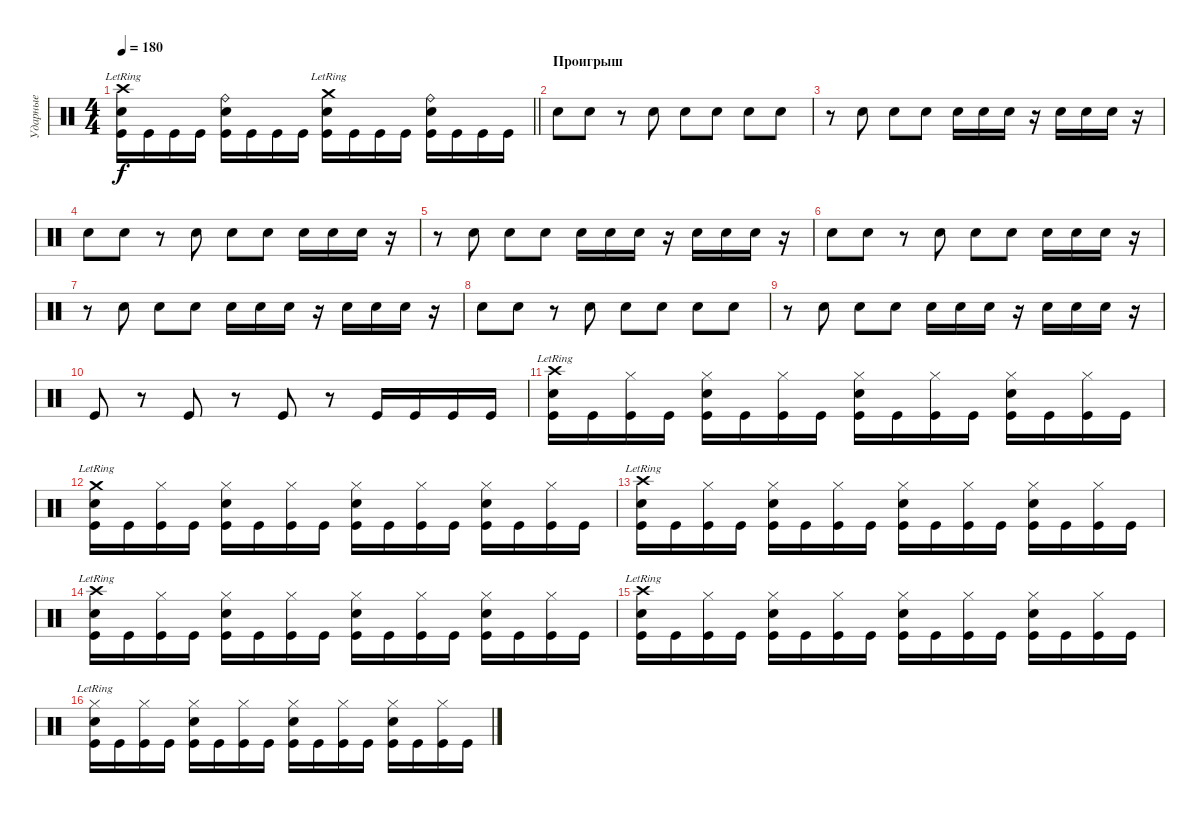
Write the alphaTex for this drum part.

\track ("Ударные" "Ударные") {instrument percussion}
\staff {score}
\articulation defaults
\ts (4 4)
\tempo 180
\clef neutral
\barLineRight lightlight
\ks c
("Crash high (hit)"{lr} "Electric Snare (hit)" "Kick (hit)").16{dy f} "Kick (hit)".16 "Kick (hit)".16 "Kick (hit)".16 ("Ride (bell)" "Electric Snare (hit)" "Kick (hit)").16 "Kick (hit)".16 "Kick (hit)".16 "Kick (hit)".16 ("Crash medium (hit)"{lr} "Electric Snare (hit)" "Kick (hit)").16 "Kick (hit)".16 "Kick (hit)".16 "Kick (hit)".16 ("Ride (bell)" "Electric Snare (hit)" "Kick (hit)").16 "Kick (hit)".16 "Kick (hit)".16 "Kick (hit)".16 |
\section ("" "Проигрыш")
"Electric Snare (hit)".8 "Electric Snare (hit)".8 r.8 "Electric Snare (hit)".8 "Electric Snare (hit)".8 "Electric Snare (hit)".8 "Electric Snare (hit)".8 "Electric Snare (hit)".8 |
r.8 "Electric Snare (hit)".8 "Electric Snare (hit)".8 "Electric Snare (hit)".8 "Electric Snare (hit)".16 "Electric Snare (hit)".16 "Electric Snare (hit)".16 r.16 "Electric Snare (hit)".16 "Electric Snare (hit)".16 "Electric Snare (hit)".16 r.16 |
"Electric Snare (hit)".8 "Electric Snare (hit)".8 r.8 "Electric Snare (hit)".8 "Electric Snare (hit)".8 "Electric Snare (hit)".8 "Electric Snare (hit)".16 "Electric Snare (hit)".16 "Electric Snare (hit)".16 r.16 |
r.8 "Electric Snare (hit)".8 "Electric Snare (hit)".8 "Electric Snare (hit)".8 "Electric Snare (hit)".16 "Electric Snare (hit)".16 "Electric Snare (hit)".16 r.16 "Electric Snare (hit)".16 "Electric Snare (hit)".16 "Electric Snare (hit)".16 r.16 |
"Electric Snare (hit)".8 "Electric Snare (hit)".8 r.8 "Electric Snare (hit)".8 "Electric Snare (hit)".8 "Electric Snare (hit)".8 "Electric Snare (hit)".16 "Electric Snare (hit)".16 "Electric Snare (hit)".16 r.16 |
r.8 "Electric Snare (hit)".8 "Electric Snare (hit)".8 "Electric Snare (hit)".8 "Electric Snare (hit)".16 "Electric Snare (hit)".16 "Electric Snare (hit)".16 r.16 "Electric Snare (hit)".16 "Electric Snare (hit)".16 "Electric Snare (hit)".16 r.16 |
"Electric Snare (hit)".8 "Electric Snare (hit)".8 r.8 "Electric Snare (hit)".8 "Electric Snare (hit)".8 "Electric Snare (hit)".8 "Electric Snare (hit)".8 "Electric Snare (hit)".8 |
r.8 "Electric Snare (hit)".8 "Electric Snare (hit)".8 "Electric Snare (hit)".8 "Electric Snare (hit)".16 "Electric Snare (hit)".16 "Electric Snare (hit)".16 r.16 "Electric Snare (hit)".16 "Electric Snare (hit)".16 "Electric Snare (hit)".16 r.16 |
"Kick (hit)".8 r.8 "Kick (hit)".8 r.8 "Kick (hit)".8 r.8 "Kick (hit)".16 "Kick (hit)".16 "Kick (hit)".16 "Kick (hit)".16 |
("Crash high (hit)"{lr} "Electric Snare (hit)" "Kick (hit)").16 "Kick (hit)".16 ("Hi-Hat (closed)" "Kick (hit)").16 "Kick (hit)".16 ("Hi-Hat (closed)" "Electric Snare (hit)" "Kick (hit)").16 "Kick (hit)".16 ("Hi-Hat (closed)" "Kick (hit)").16 "Kick (hit)".16 ("Hi-Hat (closed)" "Electric Snare (hit)" "Kick (hit)").16 "Kick (hit)".16 ("Hi-Hat (closed)" "Kick (hit)").16 "Kick (hit)".16 ("Hi-Hat (closed)" "Electric Snare (hit)" "Kick (hit)").16 "Kick (hit)".16 ("Hi-Hat (closed)" "Kick (hit)").16 "Kick (hit)".16 |
("Crash medium (hit)"{lr} "Electric Snare (hit)" "Kick (hit)").16 "Kick (hit)".16 ("Hi-Hat (closed)" "Kick (hit)").16 "Kick (hit)".16 ("Hi-Hat (closed)" "Electric Snare (hit)" "Kick (hit)").16 "Kick (hit)".16 ("Hi-Hat (closed)" "Kick (hit)").16 "Kick (hit)".16 ("Hi-Hat (closed)" "Electric Snare (hit)" "Kick (hit)").16 "Kick (hit)".16 ("Hi-Hat (closed)" "Kick (hit)").16 "Kick (hit)".16 ("Hi-Hat (closed)" "Electric Snare (hit)" "Kick (hit)").16 "Kick (hit)".16 ("Hi-Hat (closed)" "Kick (hit)").16 "Kick (hit)".16 |
("Crash high (hit)"{lr} "Electric Snare (hit)" "Kick (hit)").16 "Kick (hit)".16 ("Hi-Hat (closed)" "Kick (hit)").16 "Kick (hit)".16 ("Hi-Hat (closed)" "Electric Snare (hit)" "Kick (hit)").16 "Kick (hit)".16 ("Hi-Hat (closed)" "Kick (hit)").16 "Kick (hit)".16 ("Hi-Hat (closed)" "Electric Snare (hit)" "Kick (hit)").16 "Kick (hit)".16 ("Hi-Hat (closed)" "Kick (hit)").16 "Kick (hit)".16 ("Hi-Hat (closed)" "Electric Snare (hit)" "Kick (hit)").16 "Kick (hit)".16 ("Hi-Hat (closed)" "Kick (hit)").16 "Kick (hit)".16 |
("Crash high (hit)"{lr} "Electric Snare (hit)" "Kick (hit)").16 "Kick (hit)".16 ("Hi-Hat (closed)" "Kick (hit)").16 "Kick (hit)".16 ("Hi-Hat (closed)" "Electric Snare (hit)" "Kick (hit)").16 "Kick (hit)".16 ("Hi-Hat (closed)" "Kick (hit)").16 "Kick (hit)".16 ("Hi-Hat (closed)" "Electric Snare (hit)" "Kick (hit)").16 "Kick (hit)".16 ("Hi-Hat (closed)" "Kick (hit)").16 "Kick (hit)".16 ("Hi-Hat (closed)" "Electric Snare (hit)" "Kick (hit)").16 "Kick (hit)".16 ("Hi-Hat (closed)" "Kick (hit)").16 "Kick (hit)".16 |
("Crash high (hit)"{lr} "Electric Snare (hit)" "Kick (hit)").16 "Kick (hit)".16 ("Hi-Hat (closed)" "Kick (hit)").16 "Kick (hit)".16 ("Hi-Hat (closed)" "Electric Snare (hit)" "Kick (hit)").16 "Kick (hit)".16 ("Hi-Hat (closed)" "Kick (hit)").16 "Kick (hit)".16 ("Hi-Hat (closed)" "Electric Snare (hit)" "Kick (hit)").16 "Kick (hit)".16 ("Hi-Hat (closed)" "Kick (hit)").16 "Kick (hit)".16 ("Hi-Hat (closed)" "Electric Snare (hit)" "Kick (hit)").16 "Kick (hit)".16 ("Hi-Hat (closed)" "Kick (hit)").16 "Kick (hit)".16 |
("Hi-Hat (closed)"{lr} "Electric Snare (hit)" "Kick (hit)").16 "Kick (hit)".16 ("Hi-Hat (closed)" "Kick (hit)").16 "Kick (hit)".16 ("Hi-Hat (closed)" "Electric Snare (hit)" "Kick (hit)").16 "Kick (hit)".16 ("Hi-Hat (closed)" "Kick (hit)").16 "Kick (hit)".16 ("Hi-Hat (closed)" "Electric Snare (hit)" "Kick (hit)").16 "Kick (hit)".16 ("Hi-Hat (closed)" "Kick (hit)").16 "Kick (hit)".16 ("Hi-Hat (closed)" "Electric Snare (hit)" "Kick (hit)").16 "Kick (hit)".16 ("Hi-Hat (closed)" "Kick (hit)").16 "Kick (hit)".16
